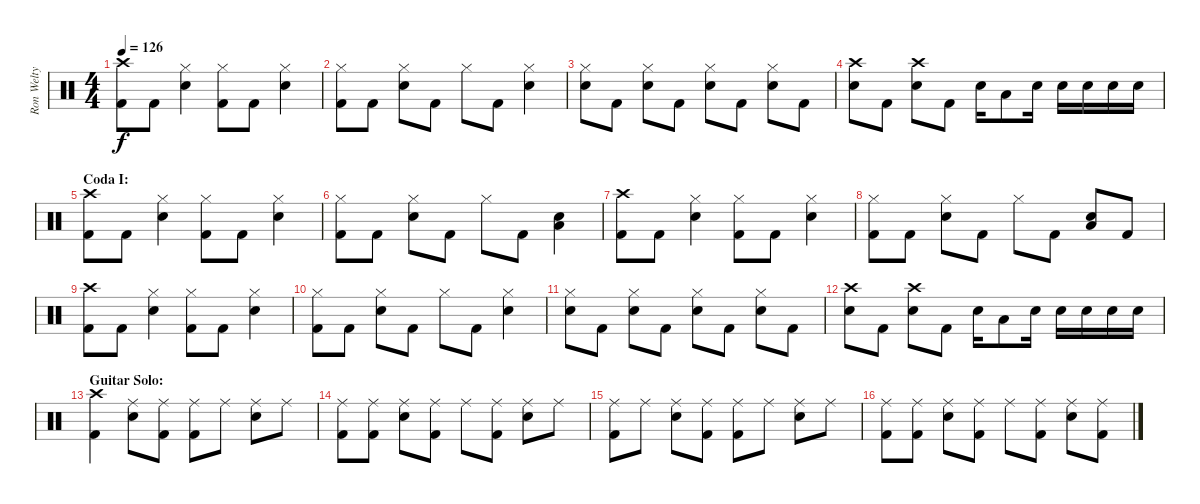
\track ("Ron Welty - Drums" "Ron Welty ") {instrument percussion}
\staff {score}
\articulation defaults
\ts (4 4)
\tempo 126
\clef neutral
\ks c
("Crash high (hit)" "Kick (hit) 2").8{dy f} "Kick (hit) 2".8 ("Hi-Hat (closed)" "Snare (hit) 2").4 ("Hi-Hat (closed)" "Kick (hit) 2").8 "Kick (hit) 2".8 ("Hi-Hat (closed)" "Snare (hit) 2").4 |
("Hi-Hat (closed)" "Kick (hit) 2").8 "Kick (hit) 2".8 ("Hi-Hat (closed)" "Snare (hit) 2").8 "Kick (hit) 2".8 "Hi-Hat (closed)".8 "Kick (hit) 2".8 ("Hi-Hat (closed)" "Snare (hit) 2").4 |
("Hi-Hat (closed)" "Snare (hit) 2").8 "Kick (hit) 2".8 ("Hi-Hat (closed)" "Snare (hit) 2").8 "Kick (hit) 2".8 ("Hi-Hat (closed)" "Snare (hit) 2").8 "Kick (hit) 2".8 ("Hi-Hat (closed)" "Snare (hit) 2").8 "Kick (hit) 2".8 |
("Crash high (hit)" "Snare (hit) 2").8 "Kick (hit) 2".8 ("Crash high (hit)" "Snare (hit) 2").8 "Kick (hit) 2".8 "Snare (hit) 2".16 "Low Floor Tom (hit)".8 "Snare (hit) 2".16 "Snare (hit) 2".16 "Snare (hit) 2".16 "Snare (hit) 2".16 "Snare (hit) 2".16 |
\section ("" "Coda I:")
("Crash high (hit)" "Kick (hit) 2").8 "Kick (hit) 2".8 ("Hi-Hat (closed)" "Snare (hit) 2").4 ("Hi-Hat (closed)" "Kick (hit) 2").8 "Kick (hit) 2".8 ("Hi-Hat (closed)" "Snare (hit) 2").4 |
("Hi-Hat (closed)" "Kick (hit) 2").8 "Kick (hit) 2".8 ("Hi-Hat (closed)" "Snare (hit) 2").8 "Kick (hit) 2".8 "Hi-Hat (closed)".8 "Kick (hit) 2".8 ("Snare (hit) 2" "Low Floor Tom (hit)").4 |
("Crash high (hit)" "Kick (hit) 2").8 "Kick (hit) 2".8 ("Hi-Hat (closed)" "Snare (hit) 2").4 ("Hi-Hat (closed)" "Kick (hit) 2").8 "Kick (hit) 2".8 ("Hi-Hat (closed)" "Snare (hit) 2").4 |
("Hi-Hat (closed)" "Kick (hit) 2").8 "Kick (hit) 2".8 ("Hi-Hat (closed)" "Snare (hit) 2").8 "Kick (hit) 2".8 "Hi-Hat (closed)".8 "Kick (hit) 2".8 ("Snare (hit) 2" "Low Floor Tom (hit)").8 "Kick (hit) 2".8 |
("Crash high (hit)" "Kick (hit) 2").8 "Kick (hit) 2".8 ("Hi-Hat (closed)" "Snare (hit) 2").4 ("Hi-Hat (closed)" "Kick (hit) 2").8 "Kick (hit) 2".8 ("Hi-Hat (closed)" "Snare (hit) 2").4 |
("Hi-Hat (closed)" "Kick (hit) 2").8 "Kick (hit) 2".8 ("Hi-Hat (closed)" "Snare (hit) 2").8 "Kick (hit) 2".8 "Hi-Hat (closed)".8 "Kick (hit) 2".8 ("Hi-Hat (closed)" "Snare (hit) 2").4 |
("Hi-Hat (closed)" "Snare (hit) 2").8 "Kick (hit) 2".8 ("Hi-Hat (closed)" "Snare (hit) 2").8 "Kick (hit) 2".8 ("Hi-Hat (closed)" "Snare (hit) 2").8 "Kick (hit) 2".8 ("Hi-Hat (closed)" "Snare (hit) 2").8 "Kick (hit) 2".8 |
("Crash high (hit)" "Snare (hit) 2").8 "Kick (hit) 2".8 ("Crash high (hit)" "Snare (hit) 2").8 "Kick (hit) 2".8 "Snare (hit) 2".16 "Low Floor Tom (hit)".8 "Snare (hit) 2".16 "Snare (hit) 2".16 "Snare (hit) 2".16 "Snare (hit) 2".16 "Snare (hit) 2".16 |
\section ("" "Guitar Solo:")
("Crash high (hit)" "Kick (hit) 2").4 ("Ride (middle)" "Snare (hit) 2").8 ("Ride (middle)" "Kick (hit) 2").8 ("Ride (middle)" "Kick (hit) 2").8 "Ride (middle)".8 ("Ride (middle)" "Snare (hit) 2").8 "Ride (middle)".8 |
("Ride (middle)" "Kick (hit) 2").8 ("Ride (middle)" "Kick (hit) 2").8 ("Ride (middle)" "Snare (hit) 2").8 ("Ride (middle)" "Kick (hit) 2").8 "Ride (middle)".8 ("Ride (middle)" "Kick (hit) 2").8 ("Ride (middle)" "Snare (hit) 2").8 "Ride (middle)".8 |
("Ride (middle)" "Kick (hit) 2").8 "Ride (middle)".8 ("Ride (middle)" "Snare (hit) 2").8 ("Ride (middle)" "Kick (hit) 2").8 ("Ride (middle)" "Kick (hit) 2").8 "Ride (middle)".8 ("Ride (middle)" "Snare (hit) 2").8 "Ride (middle)".8 |
("Ride (middle)" "Kick (hit) 2").8 ("Ride (middle)" "Kick (hit) 2").8 ("Ride (middle)" "Snare (hit) 2").8 ("Ride (middle)" "Kick (hit) 2").8 "Ride (middle)".8 ("Ride (middle)" "Kick (hit) 2").8 ("Ride (middle)" "Snare (hit) 2").8 ("Ride (middle)" "Kick (hit) 2").8
